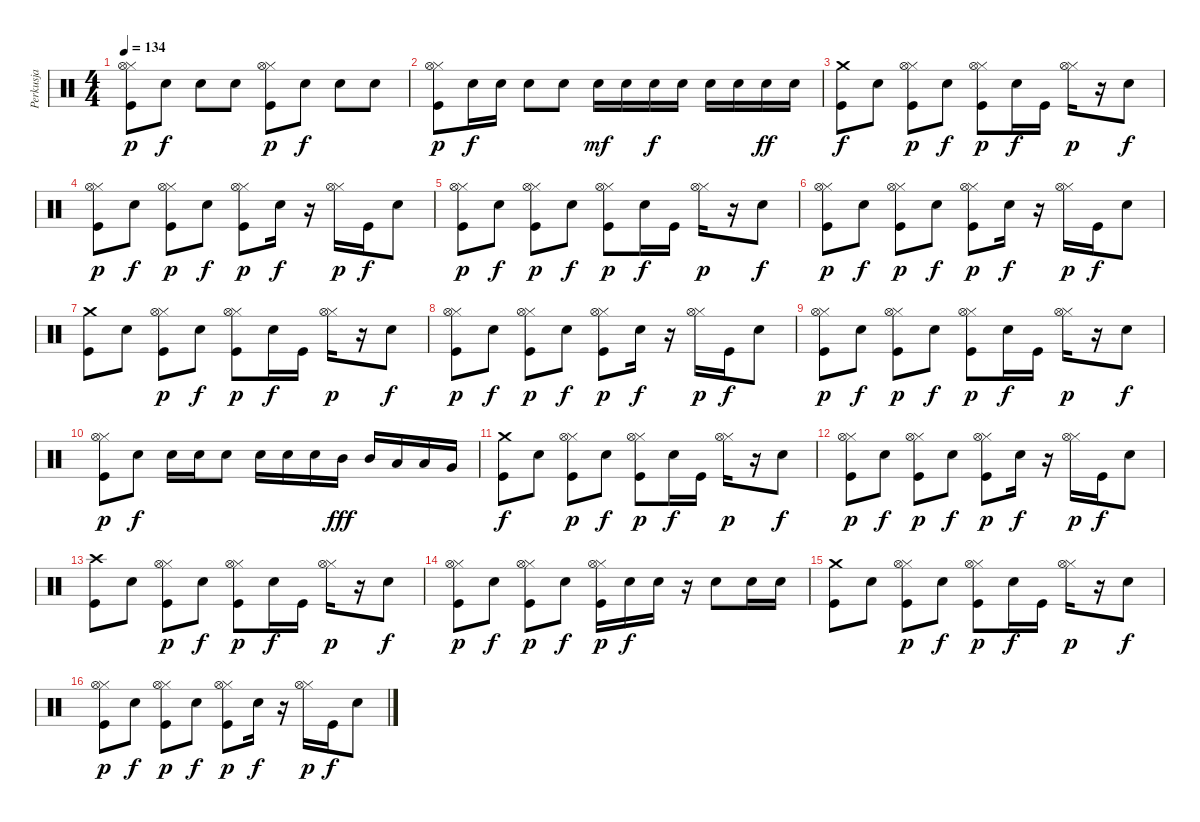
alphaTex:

\track ("Perkusja" "Perkusja") {instrument percussion}
\staff {score}
\articulation defaults
\ts (4 4)
\tempo 134
\clef neutral
\ks c
("Hi-Hat (closed)" "Hi-Hat (open)" "Kick (hit)").8{dy p} "Electric Snare (hit)".8{dy f} "Electric Snare (hit)".8 "Electric Snare (hit)".8 ("Hi-Hat (closed)" "Hi-Hat (open)" "Kick (hit)").8{dy p} "Electric Snare (hit)".8{dy f} "Electric Snare (hit)".8 "Electric Snare (hit)".8 |
("Hi-Hat (closed)" "Hi-Hat (open)" "Kick (hit)").8{dy p} "Electric Snare (hit)".16{dy f} "Electric Snare (hit)".16 "Electric Snare (hit)".8 "Electric Snare (hit)".8 "Electric Snare (hit)".16{dy mf} "Electric Snare (hit)".16 "Electric Snare (hit)".16{dy f} "Electric Snare (hit)".16 "Electric Snare (hit)".16 "Electric Snare (hit)".16 "Electric Snare (hit)".16{dy ff} "Electric Snare (hit)".16 |
("Crash medium (hit)" "Kick (hit)").8{dy f} "Electric Snare (hit)".8 ("Hi-Hat (closed)" "Hi-Hat (open)" "Kick (hit)").8{dy p} "Electric Snare (hit)".8{dy f} ("Hi-Hat (closed)" "Hi-Hat (open)" "Kick (hit)").8{dy p} "Electric Snare (hit)".16{dy f} "Kick (hit)".16 ("Hi-Hat (closed)" "Hi-Hat (open)").16{dy p} r.16 "Electric Snare (hit)".8{dy f} |
("Hi-Hat (closed)" "Hi-Hat (open)" "Kick (hit)").8{dy p} "Electric Snare (hit)".8{dy f} ("Hi-Hat (closed)" "Hi-Hat (open)" "Kick (hit)").8{dy p} "Electric Snare (hit)".8{dy f} ("Hi-Hat (closed)" "Hi-Hat (open)" "Kick (hit)").8{dy p} "Electric Snare (hit)".16{dy f} r.16 ("Hi-Hat (closed)" "Hi-Hat (open)").16{dy p} "Kick (hit)".16{dy f} "Electric Snare (hit)".8 |
("Hi-Hat (closed)" "Hi-Hat (open)" "Kick (hit)").8{dy p} "Electric Snare (hit)".8{dy f} ("Hi-Hat (closed)" "Hi-Hat (open)" "Kick (hit)").8{dy p} "Electric Snare (hit)".8{dy f} ("Hi-Hat (closed)" "Hi-Hat (open)" "Kick (hit)").8{dy p} "Electric Snare (hit)".16{dy f} "Kick (hit)".16 ("Hi-Hat (closed)" "Hi-Hat (open)").16{dy p} r.16 "Electric Snare (hit)".8{dy f} |
("Hi-Hat (closed)" "Hi-Hat (open)" "Kick (hit)").8{dy p} "Electric Snare (hit)".8{dy f} ("Hi-Hat (closed)" "Hi-Hat (open)" "Kick (hit)").8{dy p} "Electric Snare (hit)".8{dy f} ("Hi-Hat (closed)" "Hi-Hat (open)" "Kick (hit)").8{dy p} "Electric Snare (hit)".16{dy f} r.16 ("Hi-Hat (closed)" "Hi-Hat (open)").16{dy p} "Kick (hit)".16{dy f} "Electric Snare (hit)".8 |
("Crash medium (hit)" "Kick (hit)").8 "Electric Snare (hit)".8 ("Hi-Hat (closed)" "Hi-Hat (open)" "Kick (hit)").8{dy p} "Electric Snare (hit)".8{dy f} ("Hi-Hat (closed)" "Hi-Hat (open)" "Kick (hit)").8{dy p} "Electric Snare (hit)".16{dy f} "Kick (hit)".16 ("Hi-Hat (closed)" "Hi-Hat (open)").16{dy p} r.16 "Electric Snare (hit)".8{dy f} |
("Hi-Hat (closed)" "Hi-Hat (open)" "Kick (hit)").8{dy p} "Electric Snare (hit)".8{dy f} ("Hi-Hat (closed)" "Hi-Hat (open)" "Kick (hit)").8{dy p} "Electric Snare (hit)".8{dy f} ("Hi-Hat (closed)" "Hi-Hat (open)" "Kick (hit)").8{dy p} "Electric Snare (hit)".16{dy f} r.16 ("Hi-Hat (closed)" "Hi-Hat (open)").16{dy p} "Kick (hit)".16{dy f} "Electric Snare (hit)".8 |
("Hi-Hat (closed)" "Hi-Hat (open)" "Kick (hit)").8{dy p} "Electric Snare (hit)".8{dy f} ("Hi-Hat (closed)" "Hi-Hat (open)" "Kick (hit)").8{dy p} "Electric Snare (hit)".8{dy f} ("Hi-Hat (closed)" "Hi-Hat (open)" "Kick (hit)").8{dy p} "Electric Snare (hit)".16{dy f} "Kick (hit)".16 ("Hi-Hat (closed)" "Hi-Hat (open)").16{dy p} r.16 "Electric Snare (hit)".8{dy f} |
("Hi-Hat (closed)" "Hi-Hat (open)" "Kick (hit)").8{dy p} "Electric Snare (hit)".8{dy f} "Electric Snare (hit)".16 "Electric Snare (hit)".16 "Electric Snare (hit)".8 "Electric Snare (hit)".16 "Electric Snare (hit)".16 "Electric Snare (hit)".16 "Mid Tom (hit)".16{dy fff} "Mid Tom (hit)".16 "Low Tom (hit)".16 "Low Tom (hit)".16 "Very Low Tom (hit)".16 |
("Crash medium (hit)" "Kick (hit)").8{dy f} "Electric Snare (hit)".8 ("Hi-Hat (closed)" "Hi-Hat (open)" "Kick (hit)").8{dy p} "Electric Snare (hit)".8{dy f} ("Hi-Hat (closed)" "Hi-Hat (open)" "Kick (hit)").8{dy p} "Electric Snare (hit)".16{dy f} "Kick (hit)".16 ("Hi-Hat (closed)" "Hi-Hat (open)").16{dy p} r.16 "Electric Snare (hit)".8{dy f} |
("Hi-Hat (closed)" "Hi-Hat (open)" "Kick (hit)").8{dy p} "Electric Snare (hit)".8{dy f} ("Hi-Hat (closed)" "Hi-Hat (open)" "Kick (hit)").8{dy p} "Electric Snare (hit)".8{dy f} ("Hi-Hat (closed)" "Hi-Hat (open)" "Kick (hit)").8{dy p} "Electric Snare (hit)".16{dy f} r.16 ("Hi-Hat (closed)" "Hi-Hat (open)").16{dy p} "Kick (hit)".16{dy f} "Electric Snare (hit)".8 |
("Crash high (hit)" "Kick (hit)").8 "Electric Snare (hit)".8 ("Hi-Hat (closed)" "Hi-Hat (open)" "Kick (hit)").8{dy p} "Electric Snare (hit)".8{dy f} ("Hi-Hat (closed)" "Hi-Hat (open)" "Kick (hit)").8{dy p} "Electric Snare (hit)".16{dy f} "Kick (hit)".16 ("Hi-Hat (closed)" "Hi-Hat (open)").16{dy p} r.16 "Electric Snare (hit)".8{dy f} |
("Hi-Hat (closed)" "Hi-Hat (open)" "Kick (hit)").8{dy p} "Electric Snare (hit)".8{dy f} ("Hi-Hat (closed)" "Hi-Hat (open)" "Kick (hit)").8{dy p} "Electric Snare (hit)".8{dy f} ("Hi-Hat (closed)" "Hi-Hat (open)" "Kick (hit)").16{dy p} "Electric Snare (hit)".16{dy f} "Electric Snare (hit)".16 r.16 "Electric Snare (hit)".8 "Electric Snare (hit)".16 "Electric Snare (hit)".16 |
("Crash medium (hit)" "Kick (hit)").8 "Electric Snare (hit)".8 ("Hi-Hat (closed)" "Hi-Hat (open)" "Kick (hit)").8{dy p} "Electric Snare (hit)".8{dy f} ("Hi-Hat (closed)" "Hi-Hat (open)" "Kick (hit)").8{dy p} "Electric Snare (hit)".16{dy f} "Kick (hit)".16 ("Hi-Hat (closed)" "Hi-Hat (open)").16{dy p} r.16 "Electric Snare (hit)".8{dy f} |
("Hi-Hat (closed)" "Hi-Hat (open)" "Kick (hit)").8{dy p} "Electric Snare (hit)".8{dy f} ("Hi-Hat (closed)" "Hi-Hat (open)" "Kick (hit)").8{dy p} "Electric Snare (hit)".8{dy f} ("Hi-Hat (closed)" "Hi-Hat (open)" "Kick (hit)").8{dy p} "Electric Snare (hit)".16{dy f} r.16 ("Hi-Hat (closed)" "Hi-Hat (open)").16{dy p} "Kick (hit)".16{dy f} "Electric Snare (hit)".8
